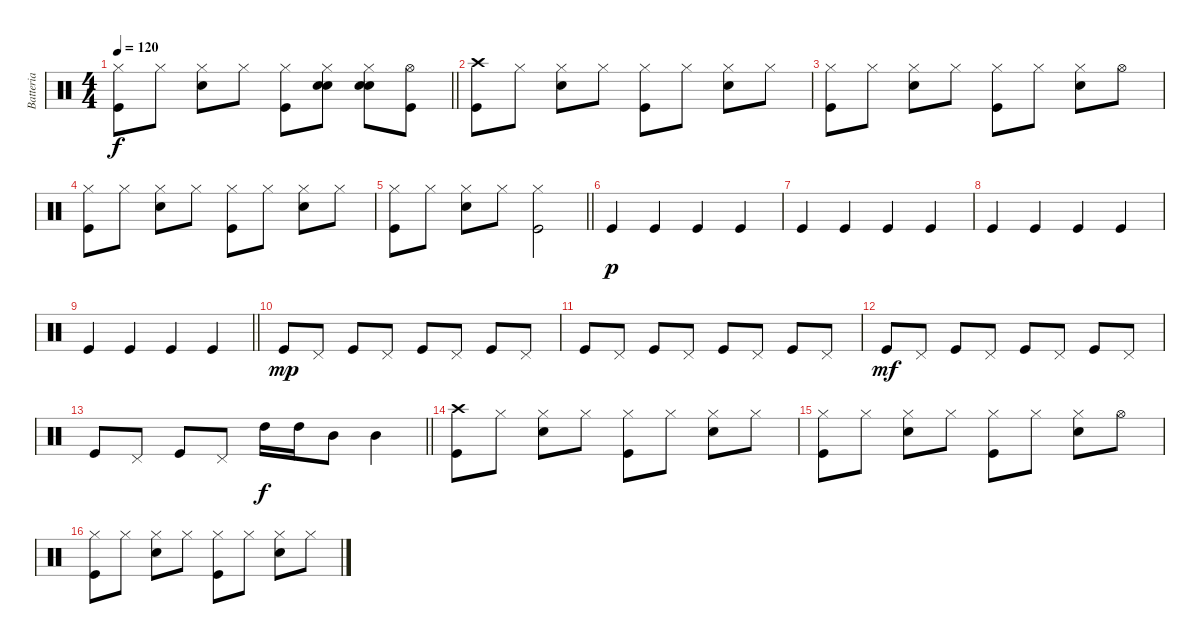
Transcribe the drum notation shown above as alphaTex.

\track ("Batteria" "Batteria") {instrument percussion}
\staff {score}
\articulation defaults
\ts (4 4)
\tempo 120
\clef neutral
\barLineRight lightlight
\ks c
("Kick (hit)" "Hi-Hat (closed)").8{dy f} "Hi-Hat (closed)".8 ("Snare (hit) 2" "Hi-Hat (closed)").8 "Hi-Hat (closed)".8 ("Kick (hit)" "Hi-Hat (closed)").8 ("Hi-Hat (closed)" "Snare (hit) 2" "Hand Clap (hit)").8 ("Snare (hit) 2" "Hi-Hat (closed)" "Hand Clap (hit)").8 ("Hi-Hat (open)" "Kick (hit)").8 |
("Kick (hit)" "Crash high (hit)").8 "Hi-Hat (closed)".8 ("Snare (hit) 2" "Hi-Hat (closed)").8 "Hi-Hat (closed)".8 ("Kick (hit)" "Hi-Hat (closed)").8 "Hi-Hat (closed)".8 ("Snare (hit) 2" "Hi-Hat (closed)").8 "Hi-Hat (closed)".8 |
("Kick (hit)" "Hi-Hat (closed)").8 "Hi-Hat (closed)".8 ("Snare (hit) 2" "Hi-Hat (closed)").8 "Hi-Hat (closed)".8 ("Kick (hit)" "Hi-Hat (closed)").8 "Hi-Hat (closed)".8 ("Snare (hit) 2" "Hi-Hat (closed)").8 "Hi-Hat (open)".8 |
("Kick (hit)" "Hi-Hat (closed)").8 "Hi-Hat (closed)".8 ("Snare (hit) 2" "Hi-Hat (closed)").8 "Hi-Hat (closed)".8 ("Kick (hit)" "Hi-Hat (closed)").8 "Hi-Hat (closed)".8 ("Snare (hit) 2" "Hi-Hat (closed)").8 "Hi-Hat (closed)".8 |
\barLineRight lightlight
("Kick (hit)" "Hi-Hat (closed)").8 "Hi-Hat (closed)".8 ("Snare (hit) 2" "Hi-Hat (closed)").8 "Hi-Hat (closed)".8 ("Kick (hit)" "Hi-Hat (closed)").2 |
"Kick (hit)".4{dy p} "Kick (hit)".4 "Kick (hit)".4 "Kick (hit)".4 |
"Kick (hit)".4 "Kick (hit)".4 "Kick (hit)".4 "Kick (hit)".4 |
"Kick (hit)".4 "Kick (hit)".4 "Kick (hit)".4 "Kick (hit)".4 |
\barLineRight lightlight "Kick (hit)".4 "Kick (hit)".4 "Kick (hit)".4 "Kick (hit)".4
|
"Kick (hit)".8{dy mp} "Pedal Hi-Hat (hit)".8 "Kick (hit)".8 "Pedal Hi-Hat (hit)".8 "Kick (hit)".8 "Pedal Hi-Hat (hit)".8 "Kick (hit)".8 "Pedal Hi-Hat (hit)".8 |
"Kick (hit)".8 "Pedal Hi-Hat (hit)".8 "Kick (hit)".8 "Pedal Hi-Hat (hit)".8 "Kick (hit)".8 "Pedal Hi-Hat (hit)".8 "Kick (hit)".8 "Pedal Hi-Hat (hit)".8 |
"Kick (hit)".8{dy mf} "Pedal Hi-Hat (hit)".8 "Kick (hit)".8 "Pedal Hi-Hat (hit)".8 "Kick (hit)".8 "Pedal Hi-Hat (hit)".8 "Kick (hit)".8 "Pedal Hi-Hat (hit)".8 |
\barLineRight lightlight "Kick (hit)".8 "Pedal Hi-Hat (hit)".8 "Kick (hit)".8 "Pedal Hi-Hat (hit)".8 "High Tom (hit)".16{dy f} "High Tom (hit)".16 "Mid Tom (hit)".8 "Mid Tom (hit)".4
|
("Kick (hit)" "Crash high (hit)").8 "Hi-Hat (closed)".8 ("Snare (hit) 2" "Hi-Hat (closed)").8 "Hi-Hat (closed)".8 ("Kick (hit)" "Hi-Hat (closed)").8 "Hi-Hat (closed)".8 ("Snare (hit) 2" "Hi-Hat (closed)").8 "Hi-Hat (closed)".8 |
("Kick (hit)" "Hi-Hat (closed)").8 "Hi-Hat (closed)".8 ("Snare (hit) 2" "Hi-Hat (closed)").8 "Hi-Hat (closed)".8 ("Kick (hit)" "Hi-Hat (closed)").8 "Hi-Hat (closed)".8 ("Snare (hit) 2" "Hi-Hat (closed)").8 "Hi-Hat (open)".8 |
("Kick (hit)" "Hi-Hat (closed)").8 "Hi-Hat (closed)".8 ("Snare (hit) 2" "Hi-Hat (closed)").8 "Hi-Hat (closed)".8 ("Kick (hit)" "Hi-Hat (closed)").8 "Hi-Hat (closed)".8 ("Snare (hit) 2" "Hi-Hat (closed)").8 "Hi-Hat (closed)".8
